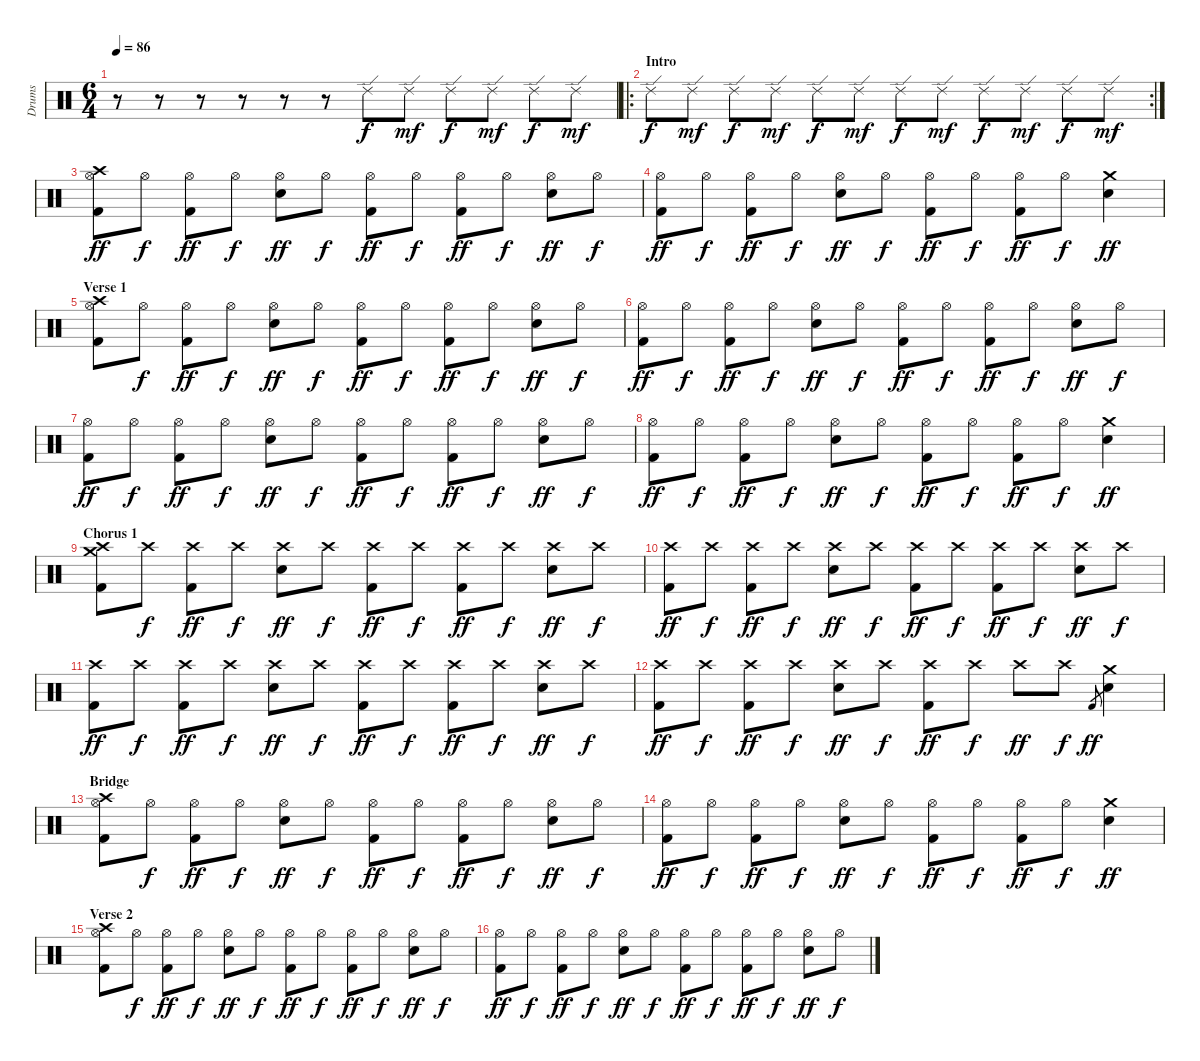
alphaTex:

\track ("Drums" "Drums") {instrument percussion}
\staff {score}
\articulation defaults
\ts (6 4)
\tempo 86
\clef neutral
\ks c
r.8{dy f} r.8 r.8 r.8 r.8 r.8 "Ride (edge) 2".8 "Ride (edge) 2".8{dy mf} "Ride (edge) 2".8{dy f} "Ride (edge) 2".8{dy mf} "Ride (edge) 2".8{dy f} "Ride (edge) 2".8{dy mf} |
\ro
\rc 2
\section ("" "Intro")
"Ride (edge) 2".8{dy f} "Ride (edge) 2".8{dy mf} "Ride (edge) 2".8{dy f} "Ride (edge) 2".8{dy mf} "Ride (edge) 2".8{dy f} "Ride (edge) 2".8{dy mf} "Ride (edge) 2".8{dy f} "Ride (edge) 2".8{dy mf} "Ride (edge) 2".8{dy f} "Ride (edge) 2".8{dy mf} "Ride (edge) 2".8{dy f} "Ride (edge) 2".8{dy mf} |
("Hi-Hat (open)" "Crash high (hit)" "Kick (hit) 2").8{dy ff} "Hi-Hat (open)".8{dy f} ("Hi-Hat (open)" "Kick (hit) 2").8{dy ff} "Hi-Hat (open)".8{dy f} ("Hi-Hat (open)" "Electric Snare (hit)").8{dy ff} "Hi-Hat (open)".8{dy f} ("Hi-Hat (open)" "Kick (hit) 2").8{dy ff} "Hi-Hat (open)".8{dy f} ("Hi-Hat (open)" "Kick (hit) 2").8{dy ff} "Hi-Hat (open)".8{dy f} ("Hi-Hat (open)" "Electric Snare (hit)").8{dy ff} "Hi-Hat (open)".8{dy f} |
("Hi-Hat (open)" "Kick (hit) 2").8{dy ff} "Hi-Hat (open)".8{dy f} ("Hi-Hat (open)" "Kick (hit) 2").8{dy ff} "Hi-Hat (open)".8{dy f} ("Hi-Hat (open)" "Electric Snare (hit)").8{dy ff} "Hi-Hat (open)".8{dy f} ("Hi-Hat (open)" "Kick (hit) 2").8{dy ff} "Hi-Hat (open)".8{dy f} ("Hi-Hat (open)" "Kick (hit) 2").8{dy ff} "Hi-Hat (open)".8{dy f} ("Crash medium (hit)" "Electric Snare (hit)").4{dy ff} |
\section ("" "Verse 1")
("Hi-Hat (open)" "Crash high (hit)" "Kick (hit) 2").8 "Hi-Hat (open)".8{dy f} ("Hi-Hat (open)" "Kick (hit) 2").8{dy ff} "Hi-Hat (open)".8{dy f} ("Hi-Hat (open)" "Electric Snare (hit)").8{dy ff} "Hi-Hat (open)".8{dy f} ("Hi-Hat (open)" "Kick (hit) 2").8{dy ff} "Hi-Hat (open)".8{dy f} ("Hi-Hat (open)" "Kick (hit) 2").8{dy ff} "Hi-Hat (open)".8{dy f} ("Hi-Hat (open)" "Electric Snare (hit)").8{dy ff} "Hi-Hat (open)".8{dy f} |
("Hi-Hat (open)" "Kick (hit) 2").8{dy ff} "Hi-Hat (open)".8{dy f} ("Hi-Hat (open)" "Kick (hit) 2").8{dy ff} "Hi-Hat (open)".8{dy f} ("Hi-Hat (open)" "Electric Snare (hit)").8{dy ff} "Hi-Hat (open)".8{dy f} ("Hi-Hat (open)" "Kick (hit) 2").8{dy ff} "Hi-Hat (open)".8{dy f} ("Hi-Hat (open)" "Kick (hit) 2").8{dy ff} "Hi-Hat (open)".8{dy f} ("Hi-Hat (open)" "Electric Snare (hit)").8{dy ff} "Hi-Hat (open)".8{dy f} |
("Hi-Hat (open)" "Kick (hit) 2").8{dy ff} "Hi-Hat (open)".8{dy f} ("Hi-Hat (open)" "Kick (hit) 2").8{dy ff} "Hi-Hat (open)".8{dy f} ("Hi-Hat (open)" "Electric Snare (hit)").8{dy ff} "Hi-Hat (open)".8{dy f} ("Hi-Hat (open)" "Kick (hit) 2").8{dy ff} "Hi-Hat (open)".8{dy f} ("Hi-Hat (open)" "Kick (hit) 2").8{dy ff} "Hi-Hat (open)".8{dy f} ("Hi-Hat (open)" "Electric Snare (hit)").8{dy ff} "Hi-Hat (open)".8{dy f} |
("Hi-Hat (open)" "Kick (hit) 2").8{dy ff} "Hi-Hat (open)".8{dy f} ("Hi-Hat (open)" "Kick (hit) 2").8{dy ff} "Hi-Hat (open)".8{dy f} ("Hi-Hat (open)" "Electric Snare (hit)").8{dy ff} "Hi-Hat (open)".8{dy f} ("Hi-Hat (open)" "Kick (hit) 2").8{dy ff} "Hi-Hat (open)".8{dy f} ("Hi-Hat (open)" "Kick (hit) 2").8{dy ff} "Hi-Hat (open)".8{dy f} ("Crash medium (hit)" "Electric Snare (hit)").4{dy ff} |
\section ("" "Chorus 1")
("Crash high (hit)" "Crash medium (hit)" "Kick (hit) 2").8 "Crash high (hit)".8{dy f} ("Crash high (hit)" "Kick (hit) 2").8{dy ff} "Crash high (hit)".8{dy f} ("Crash high (hit)" "Electric Snare (hit)").8{dy ff} "Crash high (hit)".8{dy f} ("Crash high (hit)" "Kick (hit) 2").8{dy ff} "Crash high (hit)".8{dy f} ("Crash high (hit)" "Kick (hit) 2").8{dy ff} "Crash high (hit)".8{dy f} ("Crash high (hit)" "Electric Snare (hit)").8{dy ff} "Crash high (hit)".8{dy f} |
("Crash high (hit)" "Kick (hit) 2").8{dy ff} "Crash high (hit)".8{dy f} ("Crash high (hit)" "Kick (hit) 2").8{dy ff} "Crash high (hit)".8{dy f} ("Crash high (hit)" "Electric Snare (hit)").8{dy ff} "Crash high (hit)".8{dy f} ("Crash high (hit)" "Kick (hit) 2").8{dy ff} "Crash high (hit)".8{dy f} ("Crash high (hit)" "Kick (hit) 2").8{dy ff} "Crash high (hit)".8{dy f} ("Crash high (hit)" "Electric Snare (hit)").8{dy ff} "Crash high (hit)".8{dy f} |
("Crash high (hit)" "Kick (hit) 2").8{dy ff} "Crash high (hit)".8{dy f} ("Crash high (hit)" "Kick (hit) 2").8{dy ff} "Crash high (hit)".8{dy f} ("Crash high (hit)" "Electric Snare (hit)").8{dy ff} "Crash high (hit)".8{dy f} ("Crash high (hit)" "Kick (hit) 2").8{dy ff} "Crash high (hit)".8{dy f} ("Crash high (hit)" "Kick (hit) 2").8{dy ff} "Crash high (hit)".8{dy f} ("Crash high (hit)" "Electric Snare (hit)").8{dy ff} "Crash high (hit)".8{dy f} |
("Crash high (hit)" "Kick (hit) 2").8{dy ff} "Crash high (hit)".8{dy f} ("Crash high (hit)" "Kick (hit) 2").8{dy ff} "Crash high (hit)".8{dy f} ("Crash high (hit)" "Electric Snare (hit)").8{dy ff} "Crash high (hit)".8{dy f} ("Crash high (hit)" "Kick (hit) 2").8{dy ff} "Crash high (hit)".8{dy f} "Crash high (hit)".8{dy ff} "Crash high (hit)".8{dy f} "Kick (hit) 2".8{gr dy ff} ("Crash medium (hit)" "Electric Snare (hit)").4 |
\section ("" "Bridge")
("Hi-Hat (open)" "Crash high (hit)" "Kick (hit) 2").8 "Hi-Hat (open)".8{dy f} ("Hi-Hat (open)" "Kick (hit) 2").8{dy ff} "Hi-Hat (open)".8{dy f} ("Hi-Hat (open)" "Electric Snare (hit)").8{dy ff} "Hi-Hat (open)".8{dy f} ("Hi-Hat (open)" "Kick (hit) 2").8{dy ff} "Hi-Hat (open)".8{dy f} ("Hi-Hat (open)" "Kick (hit) 2").8{dy ff} "Hi-Hat (open)".8{dy f} ("Hi-Hat (open)" "Electric Snare (hit)").8{dy ff} "Hi-Hat (open)".8{dy f} |
("Hi-Hat (open)" "Kick (hit) 2").8{dy ff} "Hi-Hat (open)".8{dy f} ("Hi-Hat (open)" "Kick (hit) 2").8{dy ff} "Hi-Hat (open)".8{dy f} ("Hi-Hat (open)" "Electric Snare (hit)").8{dy ff} "Hi-Hat (open)".8{dy f} ("Hi-Hat (open)" "Kick (hit) 2").8{dy ff} "Hi-Hat (open)".8{dy f} ("Hi-Hat (open)" "Kick (hit) 2").8{dy ff} "Hi-Hat (open)".8{dy f} ("Crash medium (hit)" "Electric Snare (hit)").4{dy ff} |
\section ("" "Verse 2")
("Hi-Hat (open)" "Crash high (hit)" "Kick (hit) 2").8 "Hi-Hat (open)".8{dy f} ("Hi-Hat (open)" "Kick (hit) 2").8{dy ff} "Hi-Hat (open)".8{dy f} ("Hi-Hat (open)" "Electric Snare (hit)").8{dy ff} "Hi-Hat (open)".8{dy f} ("Hi-Hat (open)" "Kick (hit) 2").8{dy ff} "Hi-Hat (open)".8{dy f} ("Hi-Hat (open)" "Kick (hit) 2").8{dy ff} "Hi-Hat (open)".8{dy f} ("Hi-Hat (open)" "Electric Snare (hit)").8{dy ff} "Hi-Hat (open)".8{dy f} |
("Hi-Hat (open)" "Kick (hit) 2").8{dy ff} "Hi-Hat (open)".8{dy f} ("Hi-Hat (open)" "Kick (hit) 2").8{dy ff} "Hi-Hat (open)".8{dy f} ("Hi-Hat (open)" "Electric Snare (hit)").8{dy ff} "Hi-Hat (open)".8{dy f} ("Hi-Hat (open)" "Kick (hit) 2").8{dy ff} "Hi-Hat (open)".8{dy f} ("Hi-Hat (open)" "Kick (hit) 2").8{dy ff} "Hi-Hat (open)".8{dy f} ("Hi-Hat (open)" "Electric Snare (hit)").8{dy ff} "Hi-Hat (open)".8{dy f}
